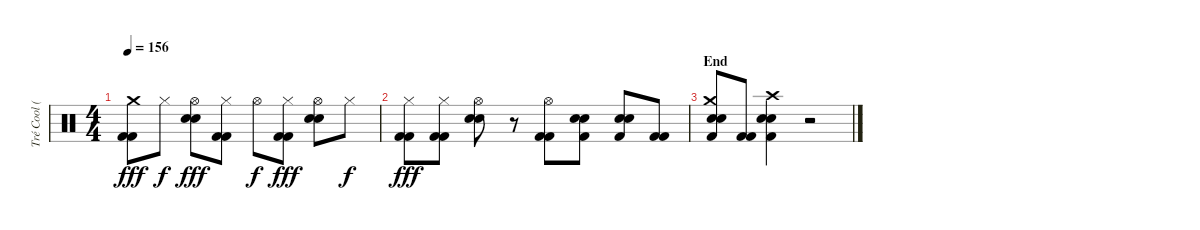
\track ("Tré Cool (Drums)" "Tré Cool (") {instrument percussion}
\staff {score}
\articulation defaults
\ts (4 4)
\tempo 156
\clef neutral
\ks c
("Kick (hit) 2" "Kick (hit) 2" "Crash medium (hit)").8{dy fff} "Hi-Hat (closed)".8{dy f} ("Electric Snare (hit)" "Electric Snare (hit)" "Hi-Hat (open)").8{dy fff} ("Kick (hit) 2" "Kick (hit) 2" "Hi-Hat (closed)").8 "Hi-Hat (open)".8{dy f} ("Kick (hit) 2" "Kick (hit) 2" "Hi-Hat (closed)").8{dy fff} ("Electric Snare (hit)" "Electric Snare (hit)" "Hi-Hat (open)").8 "Hi-Hat (closed)".8{dy f} |
("Kick (hit) 2" "Kick (hit) 2" "Hi-Hat (closed)").8{dy fff} ("Kick (hit) 2" "Kick (hit) 2" "Hi-Hat (closed)").8 ("Electric Snare (hit)" "Electric Snare (hit)" "Hi-Hat (open)").8 r.8 ("Kick (hit) 2" "Kick (hit) 2" "Hi-Hat (open)").8 ("Kick (hit) 2" "Electric Snare (hit)" "Electric Snare (hit)").8 ("Kick (hit) 2" "Electric Snare (hit)" "Electric Snare (hit)").8 ("Kick (hit) 2" "Kick (hit) 2").8 |
\section ("" "End")
("Kick (hit) 2" "Electric Snare (hit)" "Electric Snare (hit)" "Crash medium (hit)").8 ("Kick (hit) 2" "Kick (hit) 2").8 ("Kick (hit) 2" "Electric Snare (hit)" "Electric Snare (hit)" "Crash high (hit)").4 r.2
